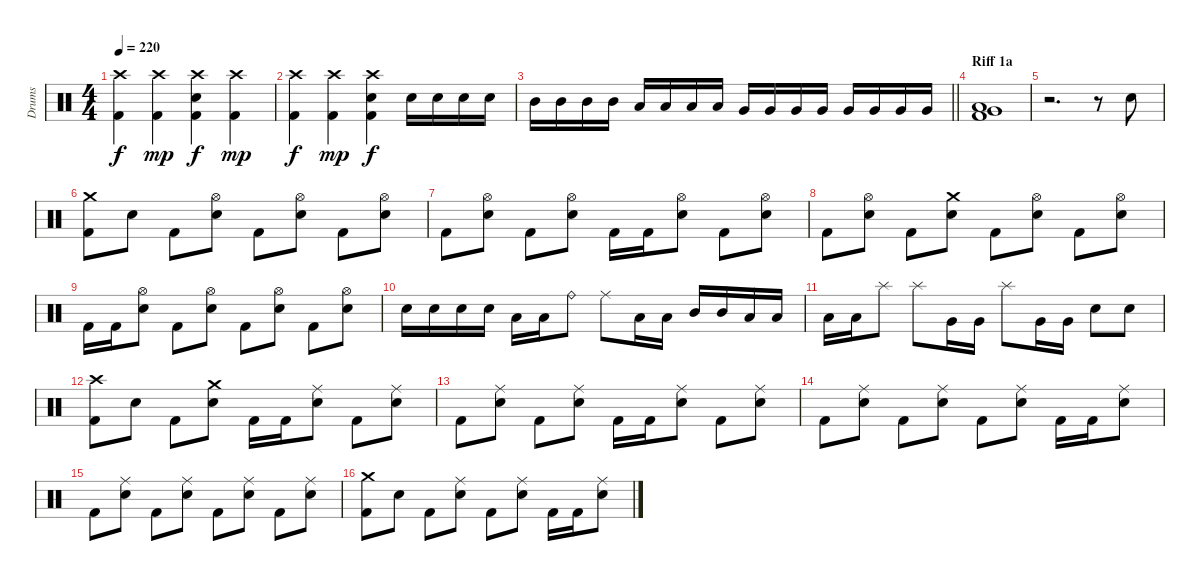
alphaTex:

\track ("Drums" "Drums") {instrument percussion}
\staff {score}
\articulation defaults
\ts (4 4)
\tempo 220
\clef neutral
\ks c
("Crash high (hit)" "Kick (hit) 2").4{dy f} ("Crash high (hit)" "Kick (hit) 2").4{dy mp} ("Crash high (hit)" "Electric Snare (hit)" "Kick (hit) 2").4{dy f} ("Crash high (hit)" "Kick (hit) 2").4{dy mp} |
("Crash high (hit)" "Kick (hit) 2").4{dy f} ("Crash high (hit)" "Kick (hit) 2").4{dy mp} ("Crash high (hit)" "Electric Snare (hit)" "Kick (hit) 2").4{dy f} "Electric Snare (hit)".16 "Electric Snare (hit)".16 "Electric Snare (hit)".16 "Electric Snare (hit)".16 |
\barLineRight lightlight "Mid Tom (hit)".16 "Mid Tom (hit)".16 "Mid Tom (hit)".16 "Mid Tom (hit)".16 "Low Tom (hit)".16 "Low Tom (hit)".16 "Low Tom (hit)".16 "Low Tom (hit)".16 "Very Low Tom (hit)".16 "Very Low Tom (hit)".16 "Very Low Tom (hit)".16 "Very Low Tom (hit)".16 "Very Low Tom (hit)".16 "Very Low Tom (hit)".16 "Very Low Tom (hit)".16 "Very Low Tom (hit)".16
|
\section ("" "Riff 1a")
("Low Floor Tom (hit)" "Very Low Tom (hit)" "Kick (hit) 2").1 |
r.2{d} r.8 "Electric Snare (hit)".8 |
("Crash medium (hit)" "Kick (hit) 2").8 "Electric Snare (hit)".8 "Kick (hit) 2".8 ("Electric Snare (hit)" "Hi-Hat (open)").8 "Kick (hit) 2".8 ("Hi-Hat (open)" "Electric Snare (hit)").8 "Kick (hit) 2".8 ("Electric Snare (hit)" "Hi-Hat (open)").8 |
"Kick (hit) 2".8 ("Hi-Hat (open)" "Electric Snare (hit)").8 "Kick (hit) 2".8 ("Electric Snare (hit)" "Hi-Hat (open)").8 "Kick (hit) 2".16 "Kick (hit) 2".16 ("Electric Snare (hit)" "Hi-Hat (open)").8 "Kick (hit) 2".8 ("Electric Snare (hit)" "Hi-Hat (open)").8 |
"Kick (hit) 2".8 ("Hi-Hat (open)" "Electric Snare (hit)").8 "Kick (hit) 2".8 ("Electric Snare (hit)" "Crash medium (hit)").8 "Kick (hit) 2".8 ("Hi-Hat (open)" "Electric Snare (hit)").8 "Kick (hit) 2".8 ("Electric Snare (hit)" "Hi-Hat (open)").8 |
"Kick (hit) 2".16 "Kick (hit) 2".16 ("Hi-Hat (open)" "Electric Snare (hit)").8 "Kick (hit) 2".8 ("Electric Snare (hit)" "Hi-Hat (open)").8 "Kick (hit) 2".8 ("Hi-Hat (open)" "Electric Snare (hit)").8 "Kick (hit) 2".8 ("Electric Snare (hit)" "Hi-Hat (open)").8 |
"Electric Snare (hit)".16 "Electric Snare (hit)".16 "Electric Snare (hit)".16 "Electric Snare (hit)".16 "Low Tom (hit)".16 "Low Tom (hit)".16 "Ride (bell)".8 "Ride (middle)".8 "Low Tom (hit)".16 "Low Tom (hit)".16 "Mid Tom (hit)".16 "Mid Tom (hit)".16 "Low Tom (hit)".16 "Low Tom (hit)".16 |
"Low Tom (hit)".16 "Low Tom (hit)".16 "Splash (hit)".8 "Splash (hit)".8 "Very Low Tom (hit)".16 "Very Low Tom (hit)".16 "Splash (hit)".8 "Very Low Tom (hit)".16 "Very Low Tom (hit)".16 "Electric Snare (hit)".8 "Electric Snare (hit)".8 |
("Crash high (hit)" "Kick (hit) 2").8 "Electric Snare (hit)".8 "Kick (hit) 2".8 ("Crash medium (hit)" "Electric Snare (hit)").8 "Kick (hit) 2".16 "Kick (hit) 2".16 ("Electric Snare (hit)" "Ride (middle)").8 "Kick (hit) 2".8 ("Electric Snare (hit)" "Ride (middle)").8 |
"Kick (hit) 2".8 ("Electric Snare (hit)" "Ride (middle)").8 "Kick (hit) 2".8 ("Electric Snare (hit)" "Ride (middle)").8 "Kick (hit) 2".16 "Kick (hit) 2".16 ("Electric Snare (hit)" "Ride (middle)").8 "Kick (hit) 2".8 ("Electric Snare (hit)" "Ride (middle)").8 |
"Kick (hit) 2".8 ("Electric Snare (hit)" "Ride (middle)").8 "Kick (hit) 2".8 ("Electric Snare (hit)" "Ride (middle)").8 "Kick (hit) 2".8 ("Electric Snare (hit)" "Ride (middle)").8 "Kick (hit) 2".16 "Kick (hit) 2".16 ("Electric Snare (hit)" "Ride (middle)").8 |
"Kick (hit) 2".8 ("Electric Snare (hit)" "Ride (middle)").8 "Kick (hit) 2".8 ("Electric Snare (hit)" "Ride (middle)").8 "Kick (hit) 2".8 ("Electric Snare (hit)" "Ride (middle)").8 "Kick (hit) 2".8 ("Electric Snare (hit)" "Ride (middle)").8 |
("Kick (hit) 2" "Crash medium (hit)").8 "Electric Snare (hit)".8 "Kick (hit) 2".8 ("Electric Snare (hit)" "Ride (middle)").8 "Kick (hit) 2".8 ("Electric Snare (hit)" "Ride (middle)").8 "Kick (hit) 2".16 "Kick (hit) 2".16 ("Electric Snare (hit)" "Ride (middle)").8
